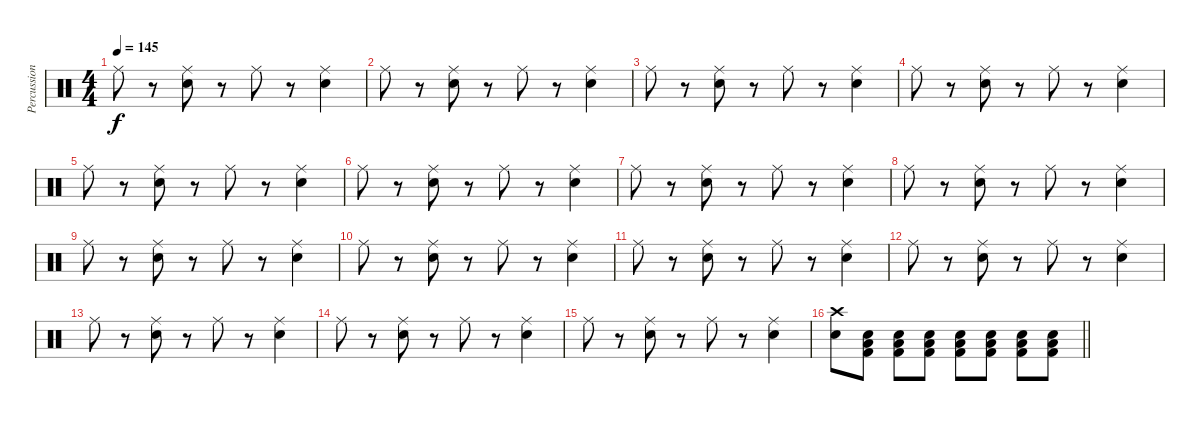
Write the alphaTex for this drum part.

\track ("Percussion" "Percussion") {instrument percussion}
\staff {score}
\articulation defaults
\ts (4 4)
\tempo 145
\clef neutral
\ks c "Ride (middle)".8{dy f}
r.8 ("Ride (middle)" "Electric Snare (hit)").8 r.8 "Ride (middle)".8 r.8 ("Ride (middle)" "Electric Snare (hit)").4 |
"Ride (middle)".8 r.8 ("Ride (middle)" "Electric Snare (hit)").8 r.8 "Ride (middle)".8 r.8 ("Ride (middle)" "Electric Snare (hit)").4 |
"Ride (middle)".8 r.8 ("Ride (middle)" "Electric Snare (hit)").8 r.8 "Ride (middle)".8 r.8 ("Ride (middle)" "Electric Snare (hit)").4 |
"Ride (middle)".8 r.8 ("Ride (middle)" "Electric Snare (hit)").8 r.8 "Ride (middle)".8 r.8 ("Ride (middle)" "Electric Snare (hit)").4 |
"Ride (middle)".8 r.8 ("Ride (middle)" "Electric Snare (hit)").8 r.8 "Ride (middle)".8 r.8 ("Ride (middle)" "Electric Snare (hit)").4 |
"Ride (middle)".8 r.8 ("Ride (middle)" "Electric Snare (hit)").8 r.8 "Ride (middle)".8 r.8 ("Ride (middle)" "Electric Snare (hit)").4 |
"Ride (middle)".8 r.8 ("Ride (middle)" "Electric Snare (hit)").8 r.8 "Ride (middle)".8 r.8 ("Ride (middle)" "Electric Snare (hit)").4 |
"Ride (middle)".8 r.8 ("Ride (middle)" "Electric Snare (hit)").8 r.8 "Ride (middle)".8 r.8 ("Ride (middle)" "Electric Snare (hit)").4 |
"Ride (middle)".8 r.8 ("Ride (middle)" "Electric Snare (hit)").8 r.8 "Ride (middle)".8 r.8 ("Ride (middle)" "Electric Snare (hit)").4 |
"Ride (middle)".8 r.8 ("Ride (middle)" "Electric Snare (hit)").8 r.8 "Ride (middle)".8 r.8 ("Ride (middle)" "Electric Snare (hit)").4 |
"Ride (middle)".8 r.8 ("Ride (middle)" "Electric Snare (hit)").8 r.8 "Ride (middle)".8 r.8 ("Ride (middle)" "Electric Snare (hit)").4 |
"Ride (middle)".8 r.8 ("Ride (middle)" "Electric Snare (hit)").8 r.8 "Ride (middle)".8 r.8 ("Ride (middle)" "Electric Snare (hit)").4 |
"Ride (middle)".8 r.8 ("Ride (middle)" "Electric Snare (hit)").8 r.8 "Ride (middle)".8 r.8 ("Ride (middle)" "Electric Snare (hit)").4 |
"Ride (middle)".8 r.8 ("Ride (middle)" "Electric Snare (hit)").8 r.8 "Ride (middle)".8 r.8 ("Ride (middle)" "Electric Snare (hit)").4 |
"Ride (middle)".8 r.8 ("Ride (middle)" "Electric Snare (hit)").8 r.8 "Ride (middle)".8 r.8 ("Ride (middle)" "Electric Snare (hit)").4 |
\barLineRight lightlight
("Crash high (hit)" "Electric Snare (hit)").8 ("Kick (hit) 2" "Low Floor Tom (hit)" "Electric Snare (hit)").8 ("Kick (hit) 2" "Low Floor Tom (hit)" "Electric Snare (hit)").8 ("Kick (hit) 2" "Low Floor Tom (hit)" "Electric Snare (hit)").8 ("Kick (hit) 2" "Low Floor Tom (hit)" "Electric Snare (hit)").8 ("Kick (hit) 2" "Low Floor Tom (hit)" "Electric Snare (hit)").8 ("Kick (hit) 2" "Low Floor Tom (hit)" "Electric Snare (hit)").8 ("Kick (hit) 2" "Low Floor Tom (hit)" "Electric Snare (hit)").8
